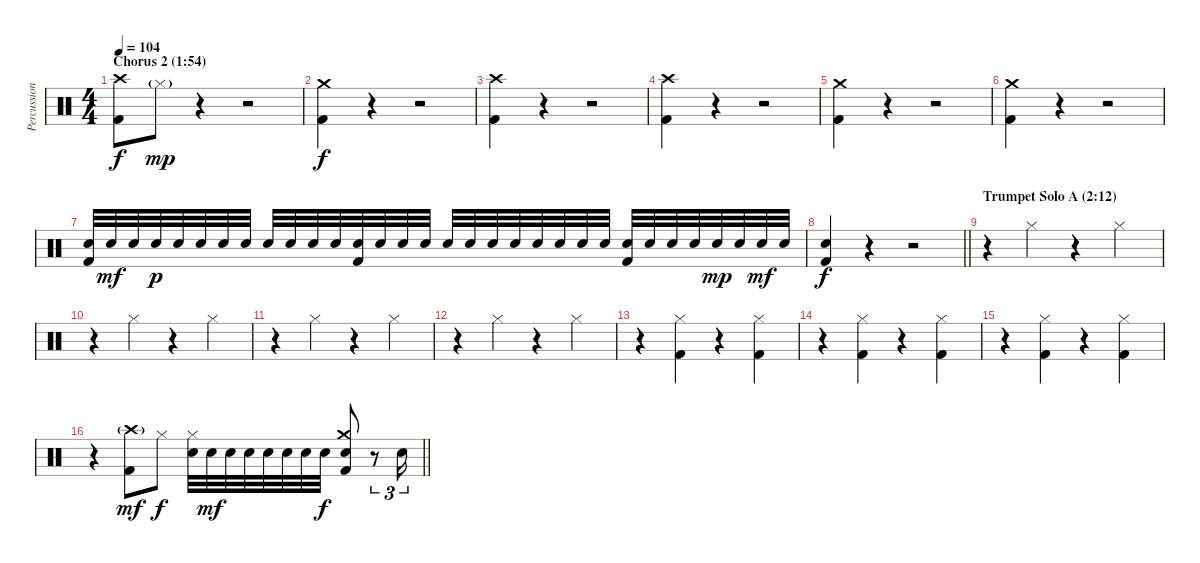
\track ("Percussion" "Percussion") {instrument percussion}
\staff {score}
\articulation defaults
\ts (4 4)
\section ("" "Chorus 2 (1:54)")
\tempo 104
\clef neutral
\ks c
("Crash high (hit)" "Kick (hit) 2").8{dy f} "Hi-Hat (closed)"{g}.8{dy mp} r.4 r.2 |
("Crash medium (hit)" "Kick (hit) 2").4{dy f} r.4 r.2 |
("Crash high (hit)" "Kick (hit) 2").4 r.4 r.2 |
("Crash high (hit)" "Kick (hit) 2").4 r.4 r.2 |
("Crash medium (hit)" "Kick (hit) 2").4 r.4 r.2 |
("Crash medium (hit)" "Kick (hit) 2").4 r.4 r.2 |
("Electric Snare (hit)" "Kick (hit) 2").32 "Electric Snare (hit)".32{dy mf} "Electric Snare (hit)".32 "Electric Snare (hit)".32{dy p} "Electric Snare (hit)".32 "Electric Snare (hit)".32 "Electric Snare (hit)".32 "Electric Snare (hit)".32 "Electric Snare (hit)".32{beam Up} "Electric Snare (hit)".32{beam Up} "Electric Snare (hit)".32{beam Up} "Electric Snare (hit)".32{beam Up} ("Electric Snare (hit)" "Kick (hit) 2").32{beam Up} "Electric Snare (hit)".32{beam Up} "Electric Snare (hit)".32{beam Up} "Electric Snare (hit)".32{beam Up} "Electric Snare (hit)".32{beam Up} "Electric Snare (hit)".32{beam Up} "Electric Snare (hit)".32{beam Up} "Electric Snare (hit)".32{beam Up} "Electric Snare (hit)".32{beam Up} "Electric Snare (hit)".32{beam Up} "Electric Snare (hit)".32{beam Up} "Electric Snare (hit)".32{beam Up} ("Electric Snare (hit)" "Kick (hit) 2").32{beam Up} "Electric Snare (hit)".32{beam Up} "Electric Snare (hit)".32{beam Up} "Electric Snare (hit)".32{beam Up} "Electric Snare (hit)".32{dy mp beam Up} "Electric Snare (hit)".32{beam Up} "Electric Snare (hit)".32{dy mf beam Up} "Electric Snare (hit)".32{beam Up} |
\barLineRight lightlight
("Electric Snare (hit)" "Kick (hit) 2").4{dy f} r.4 r.2 |
\section ("" "Trumpet Solo A (2:12)")
r.4 "Hi-Hat (closed)".4 r.4 "Hi-Hat (closed)".4 |
r.4 "Hi-Hat (closed)".4 r.4 "Hi-Hat (closed)".4 |
r.4 "Hi-Hat (closed)".4 r.4 "Hi-Hat (closed)".4 |
r.4 "Hi-Hat (closed)".4 r.4 "Hi-Hat (closed)".4 |
r.4 ("Hi-Hat (closed)" "Kick (hit) 2").4 r.4 ("Hi-Hat (closed)" "Kick (hit) 2").4 |
r.4 ("Hi-Hat (closed)" "Kick (hit) 2").4 r.4 ("Hi-Hat (closed)" "Kick (hit) 2").4 |
r.4 ("Hi-Hat (closed)" "Kick (hit) 2").4 r.4 ("Hi-Hat (closed)" "Kick (hit) 2").4 |
\barLineRight lightlight
r.4 ("Crash high (hit)"{g} "Kick (hit) 2").8{dy mf} "Hi-Hat (closed)".8{dy f} ("Hi-Hat (closed)" "Electric Snare (hit)").32 "Electric Snare (hit)".32{dy mf} "Electric Snare (hit)".32 "Electric Snare (hit)".32 "Electric Snare (hit)".32 "Electric Snare (hit)".32 "Electric Snare (hit)".32 "Electric Snare (hit)".32{dy f} ("Crash medium (hit)" "Electric Snare (hit)" "Kick (hit) 2").8 r.8{tu (3 2)} "Electric Snare (hit)".16{tu (3 2)}
